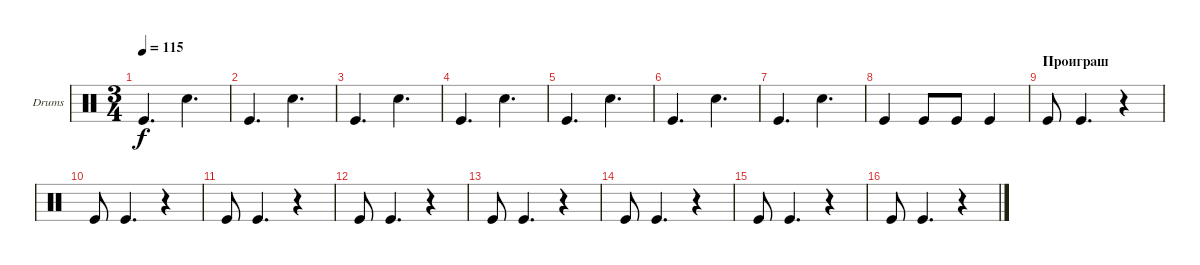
\defaultSystemsLayout 4
\bracketExtendMode groupsimilarinstruments
\firstSystemTrackNameOrientation horizontal
\otherSystemsTrackNameOrientation horizontal
\track ("Е. Кулаков" "Drums") {instrument percussion}
\staff {score}
\articulation defaults
\ts (3 4)
\tempo 115
\clef neutral
\ks c "Kick (hit)".4{d dy f} "Snare (hit) 2".4{d}
|
"Kick (hit)".4{d} "Snare (hit) 2".4{d} |
"Kick (hit)".4{d} "Snare (hit) 2".4{d} |
"Kick (hit)".4{d} "Snare (hit) 2".4{d} |
"Kick (hit)".4{d} "Snare (hit) 2".4{d} |
"Kick (hit)".4{d} "Snare (hit) 2".4{d} |
"Kick (hit)".4{d} "Snare (hit) 2".4{d} |
"Kick (hit)".4 "Kick (hit)".8 "Kick (hit)".8 "Kick (hit)".4 |
\section ("" "Проиграш")
"Kick (hit)".8 "Kick (hit)".4{d} r.4 |
"Kick (hit)".8 "Kick (hit)".4{d} r.4 |
"Kick (hit)".8 "Kick (hit)".4{d} r.4 |
"Kick (hit)".8 "Kick (hit)".4{d} r.4 |
"Kick (hit)".8 "Kick (hit)".4{d} r.4 |
"Kick (hit)".8 "Kick (hit)".4{d} r.4 |
"Kick (hit)".8 "Kick (hit)".4{d} r.4 |
"Kick (hit)".8 "Kick (hit)".4{d} r.4
